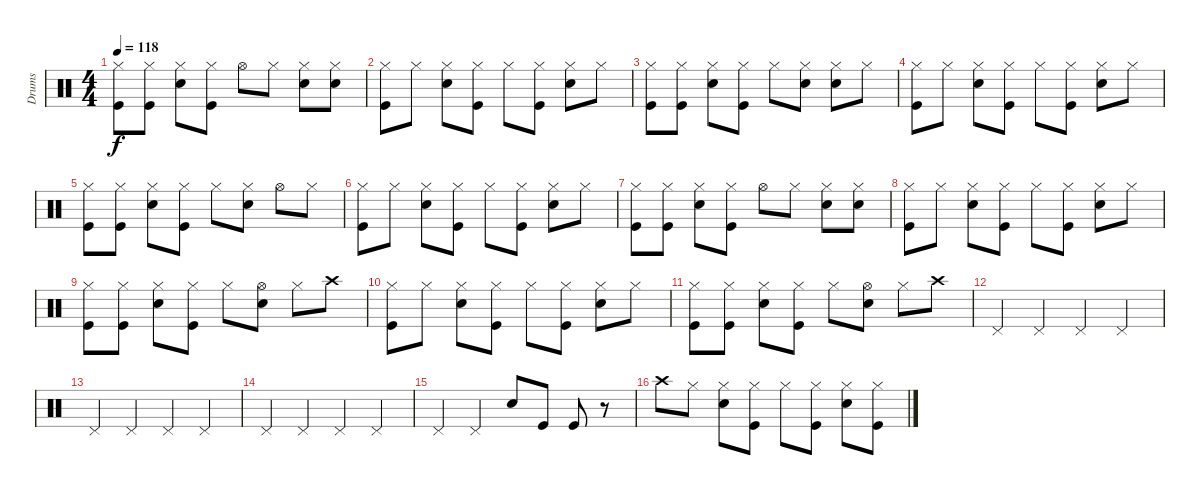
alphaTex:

\track ("Drums" "Drums") {instrument percussion}
\staff {score}
\articulation defaults
\ts (4 4)
\tempo 118
\clef neutral
\ks c
("Hi-Hat (closed)" "Kick (hit)").8{dy f} ("Hi-Hat (closed)" "Kick (hit)").8 ("Hi-Hat (closed)" "Snare (hit) 2").8 ("Hi-Hat (closed)" "Kick (hit)").8 "Hi-Hat (open)".8 "Hi-Hat (closed)".8 ("Hi-Hat (closed)" "Snare (hit) 2").8 ("Hi-Hat (closed)" "Snare (hit) 2").8 |
("Hi-Hat (closed)" "Kick (hit)").8 "Hi-Hat (closed)".8 ("Hi-Hat (closed)" "Snare (hit) 2").8 ("Hi-Hat (closed)" "Kick (hit)").8 "Hi-Hat (closed)".8 ("Hi-Hat (closed)" "Kick (hit)").8 ("Hi-Hat (closed)" "Snare (hit) 2").8 "Hi-Hat (closed)".8 |
("Hi-Hat (closed)" "Kick (hit)").8 ("Hi-Hat (closed)" "Kick (hit)").8 ("Hi-Hat (closed)" "Snare (hit) 2").8 ("Hi-Hat (closed)" "Kick (hit)").8 "Hi-Hat (closed)".8 ("Hi-Hat (closed)" "Snare (hit) 2").8 ("Hi-Hat (closed)" "Snare (hit) 2").8 "Hi-Hat (closed)".8 |
("Hi-Hat (closed)" "Kick (hit)").8 "Hi-Hat (closed)".8 ("Hi-Hat (closed)" "Snare (hit) 2").8 ("Hi-Hat (closed)" "Kick (hit)").8 "Hi-Hat (closed)".8 ("Hi-Hat (closed)" "Kick (hit)").8 ("Hi-Hat (closed)" "Snare (hit) 2").8 "Hi-Hat (closed)".8 |
("Hi-Hat (closed)" "Kick (hit)").8 ("Hi-Hat (closed)" "Kick (hit)").8 ("Hi-Hat (closed)" "Snare (hit) 2").8 ("Hi-Hat (closed)" "Kick (hit)").8 "Hi-Hat (closed)".8 ("Hi-Hat (closed)" "Snare (hit) 2").8 "Hi-Hat (open)".8 "Hi-Hat (closed)".8 |
("Hi-Hat (closed)" "Kick (hit)").8 "Hi-Hat (closed)".8 ("Hi-Hat (closed)" "Snare (hit) 2").8 ("Hi-Hat (closed)" "Kick (hit)").8 "Hi-Hat (closed)".8 ("Hi-Hat (closed)" "Kick (hit)").8 ("Hi-Hat (closed)" "Snare (hit) 2").8 "Hi-Hat (closed)".8 |
("Hi-Hat (closed)" "Kick (hit)").8 ("Hi-Hat (closed)" "Kick (hit)").8 ("Hi-Hat (closed)" "Snare (hit) 2").8 ("Hi-Hat (closed)" "Kick (hit)").8 "Hi-Hat (open)".8 "Hi-Hat (closed)".8 ("Hi-Hat (closed)" "Snare (hit) 2").8 ("Hi-Hat (closed)" "Snare (hit) 2").8 |
("Hi-Hat (closed)" "Kick (hit)").8 "Hi-Hat (closed)".8 ("Hi-Hat (closed)" "Snare (hit) 2").8 ("Hi-Hat (closed)" "Kick (hit)").8 "Hi-Hat (closed)".8 ("Hi-Hat (closed)" "Kick (hit)").8 ("Hi-Hat (closed)" "Snare (hit) 2").8 "Hi-Hat (closed)".8 |
("Hi-Hat (closed)" "Kick (hit)").8 ("Hi-Hat (closed)" "Kick (hit)").8 ("Hi-Hat (closed)" "Snare (hit) 2").8 ("Hi-Hat (closed)" "Kick (hit)").8 "Hi-Hat (closed)".8 ("Hi-Hat (open)" "Snare (hit) 2").8 "Hi-Hat (closed)".8 "Crash high (hit)".8 |
("Hi-Hat (closed)" "Kick (hit)").8 "Hi-Hat (closed)".8 ("Hi-Hat (closed)" "Snare (hit) 2").8 ("Hi-Hat (closed)" "Kick (hit)").8 "Hi-Hat (closed)".8 ("Hi-Hat (closed)" "Kick (hit)").8 ("Hi-Hat (closed)" "Snare (hit) 2").8 "Hi-Hat (closed)".8 |
("Hi-Hat (closed)" "Kick (hit)").8 ("Hi-Hat (closed)" "Kick (hit)").8 ("Hi-Hat (closed)" "Snare (hit) 2").8 ("Hi-Hat (closed)" "Kick (hit)").8 "Hi-Hat (closed)".8 ("Hi-Hat (open)" "Snare (hit) 2").8 "Hi-Hat (closed)".8 "Crash high (hit)".8 |
"Pedal Hi-Hat (hit)".4 "Pedal Hi-Hat (hit)".4 "Pedal Hi-Hat (hit)".4 "Pedal Hi-Hat (hit)".4 |
"Pedal Hi-Hat (hit)".4 "Pedal Hi-Hat (hit)".4 "Pedal Hi-Hat (hit)".4 "Pedal Hi-Hat (hit)".4 |
"Pedal Hi-Hat (hit)".4 "Pedal Hi-Hat (hit)".4 "Pedal Hi-Hat (hit)".4 "Pedal Hi-Hat (hit)".4 |
"Pedal Hi-Hat (hit)".4 "Pedal Hi-Hat (hit)".4 "Snare (hit) 2".8 "Kick (hit)".8 "Kick (hit)".8 r.8 |
"Crash high (hit)".8 "Hi-Hat (closed)".8 ("Hi-Hat (closed)" "Snare (hit) 2").8 ("Hi-Hat (closed)" "Kick (hit)").8 "Hi-Hat (closed)".8 ("Hi-Hat (closed)" "Kick (hit)").8 ("Hi-Hat (closed)" "Snare (hit) 2").8 ("Hi-Hat (closed)" "Kick (hit)").8
